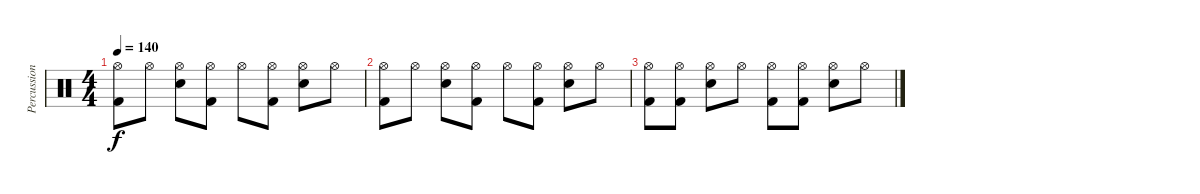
\track ("Percussion" "Percussion") {instrument percussion}
\staff {score}
\articulation defaults
\ts (4 4)
\tempo 140
\clef neutral
\ks c
("Hi-Hat (open)" "Kick (hit) 2").8{dy f} "Hi-Hat (open)".8 ("Hi-Hat (open)" "Electric Snare (hit)").8 ("Hi-Hat (open)" "Kick (hit) 2").8 "Hi-Hat (open)".8 ("Hi-Hat (open)" "Kick (hit) 2").8 ("Hi-Hat (open)" "Electric Snare (hit)").8 "Hi-Hat (open)".8 |
("Hi-Hat (open)" "Kick (hit) 2").8 "Hi-Hat (open)".8 ("Hi-Hat (open)" "Electric Snare (hit)").8 ("Hi-Hat (open)" "Kick (hit) 2").8 "Hi-Hat (open)".8 ("Hi-Hat (open)" "Kick (hit) 2").8 ("Hi-Hat (open)" "Electric Snare (hit)").8 "Hi-Hat (open)".8 |
("Hi-Hat (open)" "Kick (hit) 2").8 ("Hi-Hat (open)" "Kick (hit) 2").8 ("Hi-Hat (open)" "Electric Snare (hit)").8 "Hi-Hat (open)".8 ("Hi-Hat (open)" "Kick (hit) 2").8 ("Hi-Hat (open)" "Kick (hit) 2").8 ("Hi-Hat (open)" "Electric Snare (hit)").8 "Hi-Hat (open)".8
